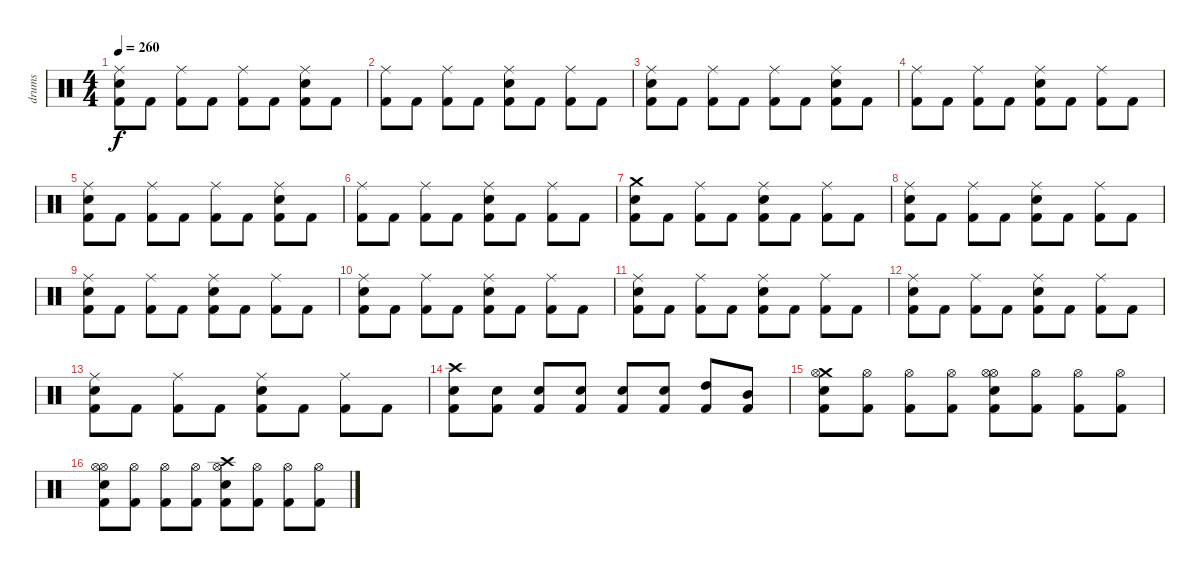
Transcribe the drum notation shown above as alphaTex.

\track ("drums" "drums") {instrument percussion}
\staff {score}
\articulation defaults
\ts (4 4)
\tempo 260
\clef neutral
\ks c
("Ride (middle)" "Electric Snare (hit)" "Kick (hit) 2").8{dy f} "Kick (hit) 2".8 ("Ride (middle)" "Kick (hit) 2").8 "Kick (hit) 2".8 ("Ride (middle)" "Kick (hit) 2").8 "Kick (hit) 2".8 ("Ride (middle)" "Electric Snare (hit)" "Kick (hit) 2").8 "Kick (hit) 2".8 |
("Ride (middle)" "Kick (hit) 2").8 "Kick (hit) 2".8 ("Ride (middle)" "Kick (hit) 2").8 "Kick (hit) 2".8 ("Ride (middle)" "Electric Snare (hit)" "Kick (hit) 2").8 "Kick (hit) 2".8 ("Ride (middle)" "Kick (hit) 2").8 "Kick (hit) 2".8 |
("Ride (middle)" "Electric Snare (hit)" "Kick (hit) 2").8 "Kick (hit) 2".8 ("Ride (middle)" "Kick (hit) 2").8 "Kick (hit) 2".8 ("Ride (middle)" "Kick (hit) 2").8 "Kick (hit) 2".8 ("Ride (middle)" "Electric Snare (hit)" "Kick (hit) 2").8 "Kick (hit) 2".8 |
("Ride (middle)" "Kick (hit) 2").8 "Kick (hit) 2".8 ("Ride (middle)" "Kick (hit) 2").8 "Kick (hit) 2".8 ("Ride (middle)" "Electric Snare (hit)" "Kick (hit) 2").8 "Kick (hit) 2".8 ("Ride (middle)" "Kick (hit) 2").8 "Kick (hit) 2".8 |
("Ride (middle)" "Electric Snare (hit)" "Kick (hit) 2").8 "Kick (hit) 2".8 ("Ride (middle)" "Kick (hit) 2").8 "Kick (hit) 2".8 ("Ride (middle)" "Kick (hit) 2").8 "Kick (hit) 2".8 ("Ride (middle)" "Electric Snare (hit)" "Kick (hit) 2").8 "Kick (hit) 2".8 |
("Ride (middle)" "Kick (hit) 2").8 "Kick (hit) 2".8 ("Ride (middle)" "Kick (hit) 2").8 "Kick (hit) 2".8 ("Ride (middle)" "Electric Snare (hit)" "Kick (hit) 2").8 "Kick (hit) 2".8 ("Ride (middle)" "Kick (hit) 2").8 "Kick (hit) 2".8 |
("Crash medium (hit)" "Electric Snare (hit)" "Kick (hit) 2").8 "Kick (hit) 2".8 ("Ride (middle)" "Kick (hit) 2").8 "Kick (hit) 2".8 ("Ride (middle)" "Electric Snare (hit)" "Kick (hit) 2").8 "Kick (hit) 2".8 ("Ride (middle)" "Kick (hit) 2").8 "Kick (hit) 2".8 |
("Ride (middle)" "Electric Snare (hit)" "Kick (hit) 2").8 "Kick (hit) 2".8 ("Ride (middle)" "Kick (hit) 2").8 "Kick (hit) 2".8 ("Ride (middle)" "Electric Snare (hit)" "Kick (hit) 2").8 "Kick (hit) 2".8 ("Ride (middle)" "Kick (hit) 2").8 "Kick (hit) 2".8 |
("Ride (middle)" "Electric Snare (hit)" "Kick (hit) 2").8 "Kick (hit) 2".8 ("Ride (middle)" "Kick (hit) 2").8 "Kick (hit) 2".8 ("Ride (middle)" "Electric Snare (hit)" "Kick (hit) 2").8 "Kick (hit) 2".8 ("Ride (middle)" "Kick (hit) 2").8 "Kick (hit) 2".8 |
("Ride (middle)" "Electric Snare (hit)" "Kick (hit) 2").8 "Kick (hit) 2".8 ("Ride (middle)" "Kick (hit) 2").8 "Kick (hit) 2".8 ("Ride (middle)" "Electric Snare (hit)" "Kick (hit) 2").8 "Kick (hit) 2".8 ("Ride (middle)" "Kick (hit) 2").8 "Kick (hit) 2".8 |
("Ride (middle)" "Electric Snare (hit)" "Kick (hit) 2").8 "Kick (hit) 2".8 ("Ride (middle)" "Kick (hit) 2").8 "Kick (hit) 2".8 ("Ride (middle)" "Electric Snare (hit)" "Kick (hit) 2").8 "Kick (hit) 2".8 ("Ride (middle)" "Kick (hit) 2").8 "Kick (hit) 2".8 |
("Ride (middle)" "Electric Snare (hit)" "Kick (hit) 2").8 "Kick (hit) 2".8 ("Ride (middle)" "Kick (hit) 2").8 "Kick (hit) 2".8 ("Ride (middle)" "Electric Snare (hit)" "Kick (hit) 2").8 "Kick (hit) 2".8 ("Ride (middle)" "Kick (hit) 2").8 "Kick (hit) 2".8 |
("Ride (middle)" "Electric Snare (hit)" "Kick (hit) 2").8 "Kick (hit) 2".8 ("Ride (middle)" "Kick (hit) 2").8 "Kick (hit) 2".8 ("Ride (middle)" "Electric Snare (hit)" "Kick (hit) 2").8 "Kick (hit) 2".8 ("Ride (middle)" "Kick (hit) 2").8 "Kick (hit) 2".8 |
("Crash high (hit)" "Electric Snare (hit)" "Kick (hit) 2").8 ("Electric Snare (hit)" "Kick (hit) 2").8 ("Electric Snare (hit)" "Kick (hit) 2").8 ("Electric Snare (hit)" "Kick (hit) 2").8 ("Electric Snare (hit)" "Kick (hit) 2").8 ("Electric Snare (hit)" "Kick (hit) 2").8 ("High Tom (hit)" "Kick (hit) 2").8 ("Mid Tom (hit)" "Kick (hit) 2").8 |
("Crash medium (hit)" "Hi-Hat (open)" "Electric Snare (hit)" "Kick (hit) 2").8 ("Hi-Hat (open)" "Kick (hit) 2").8 ("Hi-Hat (open)" "Kick (hit) 2").8 ("Hi-Hat (open)" "Kick (hit) 2").8 ("Hi-Hat (open)" "Hi-Hat (open)" "Electric Snare (hit)" "Kick (hit) 2").8 ("Hi-Hat (open)" "Kick (hit) 2").8 ("Hi-Hat (open)" "Kick (hit) 2").8 ("Hi-Hat (open)" "Kick (hit) 2").8 |
("Hi-Hat (open)" "Hi-Hat (open)" "Electric Snare (hit)" "Kick (hit) 2").8 ("Hi-Hat (open)" "Kick (hit) 2").8 ("Hi-Hat (open)" "Kick (hit) 2").8 ("Hi-Hat (open)" "Kick (hit) 2").8 ("Crash high (hit)" "Hi-Hat (open)" "Electric Snare (hit)" "Kick (hit) 2").8 ("Hi-Hat (open)" "Kick (hit) 2").8 ("Hi-Hat (open)" "Kick (hit) 2").8 ("Hi-Hat (open)" "Kick (hit) 2").8
